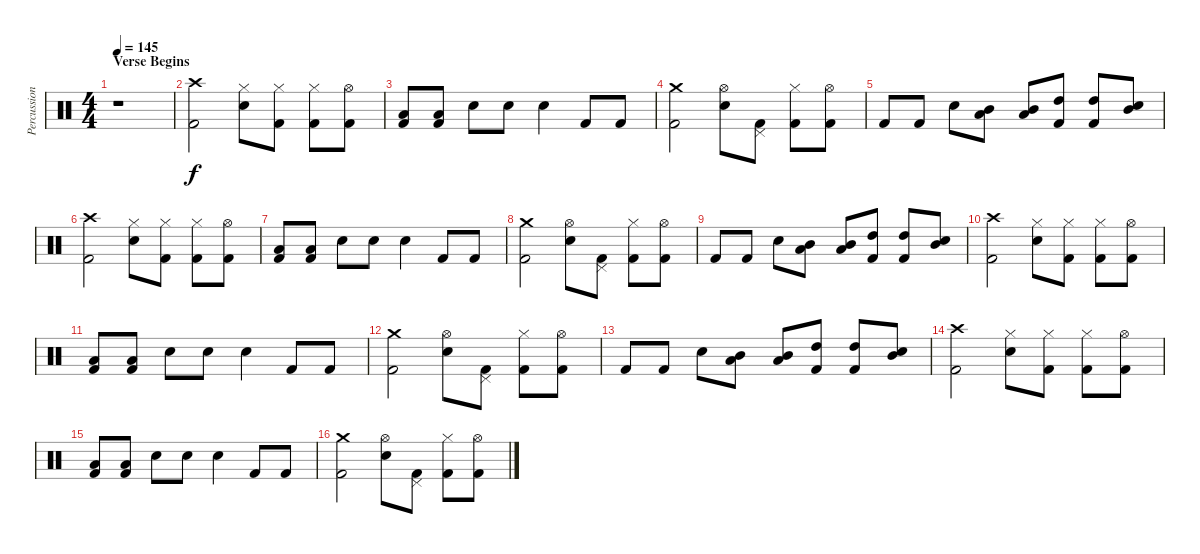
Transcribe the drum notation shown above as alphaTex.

\track ("Percussion" "Percussion") {instrument percussion}
\staff {score}
\articulation defaults
\ts (4 4)
\section ("" "Verse Begins")
\tempo 145
\clef neutral
\ks c
r.1{dy f} |
("Crash high (hit)" "Kick (hit) 2").2 ("Hi-Hat (closed)" "Snare (hit) 2").8 ("Hi-Hat (closed)" "Kick (hit) 2").8 ("Hi-Hat (closed)" "Kick (hit) 2").8 ("Hi-Hat (open)" "Kick (hit) 2").8 |
("Low Tom (hit)" "Kick (hit) 2").8 ("Low Tom (hit)" "Kick (hit) 2").8 "Snare (hit) 2".8 "Snare (hit)".8 "Snare (hit) 2".4 "Kick (hit) 2".8 "Kick (hit) 2".8 |
("Crash medium (hit)" "Kick (hit) 2").2 ("Hi-Hat (open)" "Snare (hit) 2").8 ("Pedal Hi-Hat (hit)" "Kick (hit) 2").8 ("Hi-Hat (closed)" "Kick (hit) 2").8 ("Hi-Hat (open)" "Kick (hit) 2").8 |
"Kick (hit) 2".8 "Kick (hit) 2".8 "Snare (hit) 2".8 ("Low Tom (hit)" "Mid Tom (hit)").8 ("Low Tom (hit)" "Mid Tom (hit)").8 ("High Tom (hit)" "Kick (hit) 2").8 ("High Tom (hit)" "Kick (hit) 2").8 ("Mid Tom (hit)" "Snare (hit) 2").8 |
("Crash high (hit)" "Kick (hit) 2").2 ("Hi-Hat (closed)" "Snare (hit) 2").8 ("Hi-Hat (closed)" "Kick (hit) 2").8 ("Hi-Hat (closed)" "Kick (hit) 2").8 ("Hi-Hat (open)" "Kick (hit) 2").8 |
("Low Tom (hit)" "Kick (hit) 2").8 ("Low Tom (hit)" "Kick (hit) 2").8 "Snare (hit) 2".8 "Snare (hit)".8 "Snare (hit) 2".4 "Kick (hit) 2".8 "Kick (hit) 2".8 |
("Crash medium (hit)" "Kick (hit) 2").2 ("Hi-Hat (open)" "Snare (hit) 2").8 ("Pedal Hi-Hat (hit)" "Kick (hit) 2").8 ("Hi-Hat (closed)" "Kick (hit) 2").8 ("Hi-Hat (open)" "Kick (hit) 2").8 |
"Kick (hit) 2".8 "Kick (hit) 2".8 "Snare (hit) 2".8 ("Low Tom (hit)" "Mid Tom (hit)").8 ("Low Tom (hit)" "Mid Tom (hit)").8 ("High Tom (hit)" "Kick (hit) 2").8 ("High Tom (hit)" "Kick (hit) 2").8 ("Mid Tom (hit)" "Snare (hit) 2").8 |
("Crash high (hit)" "Kick (hit) 2").2 ("Hi-Hat (closed)" "Snare (hit) 2").8 ("Hi-Hat (closed)" "Kick (hit) 2").8 ("Hi-Hat (closed)" "Kick (hit) 2").8 ("Hi-Hat (open)" "Kick (hit) 2").8 |
("Low Tom (hit)" "Kick (hit) 2").8 ("Low Tom (hit)" "Kick (hit) 2").8 "Snare (hit) 2".8 "Snare (hit)".8 "Snare (hit) 2".4 "Kick (hit) 2".8 "Kick (hit) 2".8 |
("Crash medium (hit)" "Kick (hit) 2").2 ("Hi-Hat (open)" "Snare (hit) 2").8 ("Pedal Hi-Hat (hit)" "Kick (hit) 2").8 ("Hi-Hat (closed)" "Kick (hit) 2").8 ("Hi-Hat (open)" "Kick (hit) 2").8 |
"Kick (hit) 2".8 "Kick (hit) 2".8 "Snare (hit) 2".8 ("Low Tom (hit)" "Mid Tom (hit)").8 ("Low Tom (hit)" "Mid Tom (hit)").8 ("High Tom (hit)" "Kick (hit) 2").8 ("High Tom (hit)" "Kick (hit) 2").8 ("Mid Tom (hit)" "Snare (hit) 2").8 |
("Crash high (hit)" "Kick (hit) 2").2 ("Hi-Hat (closed)" "Snare (hit) 2").8 ("Hi-Hat (closed)" "Kick (hit) 2").8 ("Hi-Hat (closed)" "Kick (hit) 2").8 ("Hi-Hat (open)" "Kick (hit) 2").8 |
("Low Tom (hit)" "Kick (hit) 2").8 ("Low Tom (hit)" "Kick (hit) 2").8 "Snare (hit) 2".8 "Snare (hit)".8 "Snare (hit) 2".4 "Kick (hit) 2".8 "Kick (hit) 2".8 |
("Crash medium (hit)" "Kick (hit) 2").2 ("Hi-Hat (open)" "Snare (hit) 2").8 ("Pedal Hi-Hat (hit)" "Kick (hit) 2").8 ("Hi-Hat (closed)" "Kick (hit) 2").8 ("Hi-Hat (open)" "Kick (hit) 2").8
